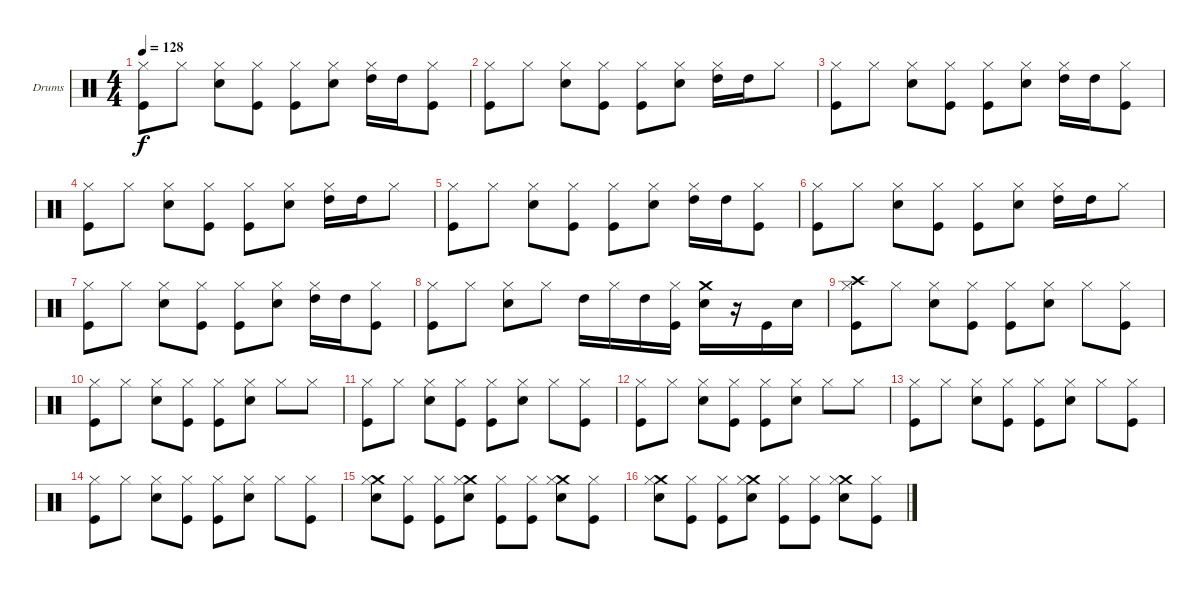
\bracketExtendMode groupsimilarinstruments
\firstSystemTrackNameOrientation horizontal
\otherSystemsTrackNameOrientation horizontal
\track ("Drumkit (Christoph)" "Drums") {instrument percussion}
\staff {score}
\articulation defaults
\ts (4 4)
\tempo 128
\clef neutral
\ks c
("Kick (hit)" "Hi-Hat (closed)").8{dy f} "Hi-Hat (closed)".8 ("Snare (hit) 2" "Hi-Hat (closed)").8 ("Kick (hit)" "Hi-Hat (closed)").8 ("Kick (hit)" "Hi-Hat (closed)").8 ("Snare (hit) 2" "Hi-Hat (closed)").8 ("High Tom (hit)" "Hi-Hat (closed)").16 "High Tom (hit)".16 ("Kick (hit)" "Hi-Hat (closed)").8 |
("Kick (hit)" "Hi-Hat (closed)").8 "Hi-Hat (closed)".8 ("Snare (hit) 2" "Hi-Hat (closed)").8 ("Kick (hit)" "Hi-Hat (closed)").8 ("Kick (hit)" "Hi-Hat (closed)").8 ("Snare (hit) 2" "Hi-Hat (closed)").8 ("High Tom (hit)" "Hi-Hat (closed)").16 "High Tom (hit)".16 "Hi-Hat (closed)".8 |
("Kick (hit)" "Hi-Hat (closed)").8 "Hi-Hat (closed)".8 ("Snare (hit) 2" "Hi-Hat (closed)").8 ("Kick (hit)" "Hi-Hat (closed)").8 ("Kick (hit)" "Hi-Hat (closed)").8 ("Snare (hit) 2" "Hi-Hat (closed)").8 ("High Tom (hit)" "Hi-Hat (closed)").16 "High Tom (hit)".16 ("Kick (hit)" "Hi-Hat (closed)").8 |
("Kick (hit)" "Hi-Hat (closed)").8 "Hi-Hat (closed)".8 ("Snare (hit) 2" "Hi-Hat (closed)").8 ("Kick (hit)" "Hi-Hat (closed)").8 ("Kick (hit)" "Hi-Hat (closed)").8 ("Snare (hit) 2" "Hi-Hat (closed)").8 ("High Tom (hit)" "Hi-Hat (closed)").16 "High Tom (hit)".16 "Hi-Hat (closed)".8 |
("Kick (hit)" "Hi-Hat (closed)").8 "Hi-Hat (closed)".8 ("Snare (hit) 2" "Hi-Hat (closed)").8 ("Kick (hit)" "Hi-Hat (closed)").8 ("Kick (hit)" "Hi-Hat (closed)").8 ("Snare (hit) 2" "Hi-Hat (closed)").8 ("High Tom (hit)" "Hi-Hat (closed)").16 "High Tom (hit)".16 ("Kick (hit)" "Hi-Hat (closed)").8 |
("Kick (hit)" "Hi-Hat (closed)").8 "Hi-Hat (closed)".8 ("Snare (hit) 2" "Hi-Hat (closed)").8 ("Kick (hit)" "Hi-Hat (closed)").8 ("Kick (hit)" "Hi-Hat (closed)").8 ("Snare (hit) 2" "Hi-Hat (closed)").8 ("High Tom (hit)" "Hi-Hat (closed)").16 "High Tom (hit)".16 "Hi-Hat (closed)".8 |
("Kick (hit)" "Hi-Hat (closed)").8 "Hi-Hat (closed)".8 ("Snare (hit) 2" "Hi-Hat (closed)").8 ("Kick (hit)" "Hi-Hat (closed)").8 ("Kick (hit)" "Hi-Hat (closed)").8 ("Snare (hit) 2" "Hi-Hat (closed)").8 ("High Tom (hit)" "Hi-Hat (closed)").16 "High Tom (hit)".16 ("Kick (hit)" "Hi-Hat (closed)").8 |
("Kick (hit)" "Hi-Hat (closed)").8 "Hi-Hat (closed)".8 ("Snare (hit) 2" "Hi-Hat (closed)").8 "Hi-Hat (closed)".8 "High Tom (hit)".16 "Hi-Hat (closed)".16 "High Tom (hit)".16 ("Kick (hit)" "Hi-Hat (closed)").16 ("Snare (hit) 2" "Crash medium (hit)").16 r.16 "Kick (hit)".16 "Snare (hit) 2".16 |
("Kick (hit)" "Crash high (hit)" "Hi-Hat (closed)").8 "Hi-Hat (closed)".8 ("Snare (hit) 2" "Hi-Hat (closed)").8 ("Kick (hit)" "Hi-Hat (closed)").8 ("Kick (hit)" "Hi-Hat (closed)").8 ("Snare (hit) 2" "Hi-Hat (closed)").8 "Hi-Hat (closed)".8 ("Kick (hit)" "Hi-Hat (closed)").8 |
("Kick (hit)" "Hi-Hat (closed)").8 "Hi-Hat (closed)".8 ("Snare (hit) 2" "Hi-Hat (closed)").8 ("Kick (hit)" "Hi-Hat (closed)").8 ("Kick (hit)" "Hi-Hat (closed)").8 ("Snare (hit) 2" "Hi-Hat (closed)").8 "Hi-Hat (closed)".8 "Hi-Hat (closed)".8 |
("Kick (hit)" "Hi-Hat (closed)").8 "Hi-Hat (closed)".8 ("Snare (hit) 2" "Hi-Hat (closed)").8 ("Kick (hit)" "Hi-Hat (closed)").8 ("Kick (hit)" "Hi-Hat (closed)").8 ("Snare (hit) 2" "Hi-Hat (closed)").8 "Hi-Hat (closed)".8 ("Kick (hit)" "Hi-Hat (closed)").8 |
("Kick (hit)" "Hi-Hat (closed)").8 "Hi-Hat (closed)".8 ("Snare (hit) 2" "Hi-Hat (closed)").8 ("Kick (hit)" "Hi-Hat (closed)").8 ("Kick (hit)" "Hi-Hat (closed)").8 ("Snare (hit) 2" "Hi-Hat (closed)").8 "Hi-Hat (closed)".8 "Hi-Hat (closed)".8 |
("Kick (hit)" "Hi-Hat (closed)").8 "Hi-Hat (closed)".8 ("Snare (hit) 2" "Hi-Hat (closed)").8 ("Kick (hit)" "Hi-Hat (closed)").8 ("Kick (hit)" "Hi-Hat (closed)").8 ("Snare (hit) 2" "Hi-Hat (closed)").8 "Hi-Hat (closed)".8 ("Kick (hit)" "Hi-Hat (closed)").8 |
("Kick (hit)" "Hi-Hat (closed)").8 "Hi-Hat (closed)".8 ("Snare (hit) 2" "Hi-Hat (closed)").8 ("Kick (hit)" "Hi-Hat (closed)").8 ("Kick (hit)" "Hi-Hat (closed)").8 ("Snare (hit) 2" "Hi-Hat (closed)").8 "Hi-Hat (closed)".8 ("Kick (hit)" "Hi-Hat (closed)").8 |
("Crash medium (hit)" "Snare (hit) 2" "Hi-Hat (closed)").8 ("Kick (hit)" "Hi-Hat (closed)").8 ("Kick (hit)" "Hi-Hat (closed)").8 ("Crash medium (hit)" "Snare (hit) 2" "Hi-Hat (closed)").8 ("Kick (hit)" "Hi-Hat (closed)").8 ("Kick (hit)" "Hi-Hat (closed)").8 ("Crash medium (hit)" "Snare (hit) 2" "Hi-Hat (closed)").8 ("Kick (hit)" "Hi-Hat (closed)").8 |
("Crash medium (hit)" "Snare (hit) 2" "Hi-Hat (closed)").8 ("Kick (hit)" "Hi-Hat (closed)").8 ("Kick (hit)" "Hi-Hat (closed)").8 ("Crash medium (hit)" "Snare (hit) 2" "Hi-Hat (closed)").8 ("Kick (hit)" "Hi-Hat (closed)").8 ("Kick (hit)" "Hi-Hat (closed)").8 ("Crash medium (hit)" "Snare (hit) 2" "Hi-Hat (closed)").8 ("Kick (hit)" "Hi-Hat (closed)").8
